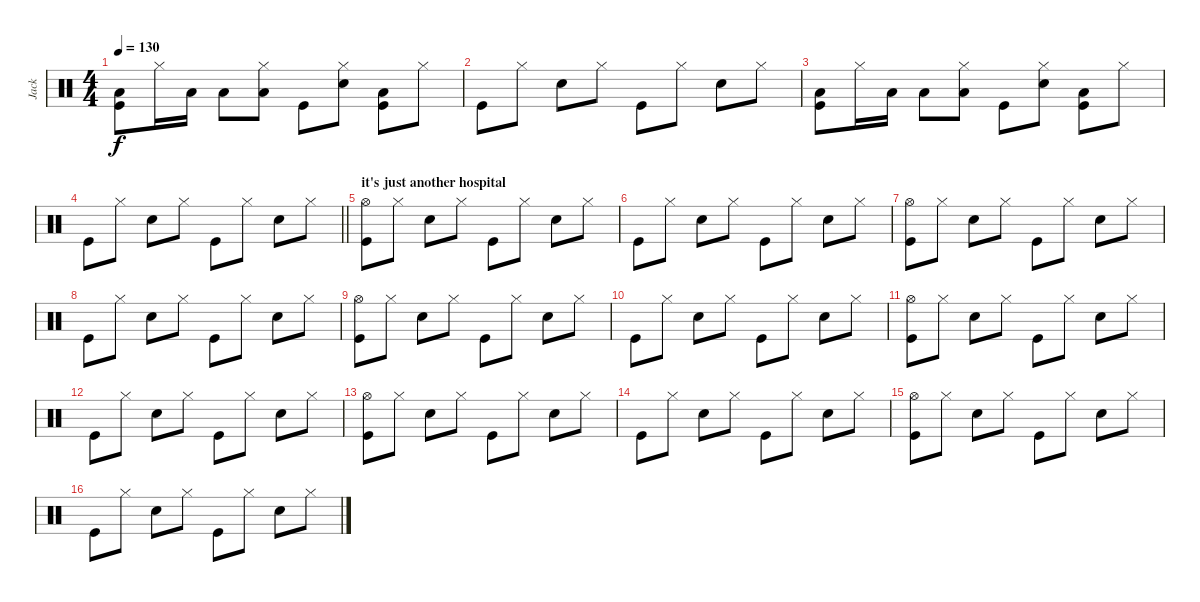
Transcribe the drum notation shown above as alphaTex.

\track ("Jack" "Jack") {instrument percussion}
\staff {score}
\articulation defaults
\ts (4 4)
\tempo 130
\clef neutral
\ks c
("Low Floor Tom (hit)" "Kick (hit)").8{dy f} "Hi-Hat (closed)".16 "Low Floor Tom (hit)".16 "Low Floor Tom (hit)".8 ("Hi-Hat (closed)" "Low Floor Tom (hit)").8 "Kick (hit)".8 ("Hi-Hat (closed)" "Electric Snare (hit)").8 ("Low Floor Tom (hit)" "Kick (hit)").8 "Hi-Hat (closed)".8 |
"Kick (hit)".8 "Hi-Hat (closed)".8 "Electric Snare (hit)".8 "Hi-Hat (closed)".8 "Kick (hit)".8 "Hi-Hat (closed)".8 "Electric Snare (hit)".8 "Hi-Hat (closed)".8 |
("Low Floor Tom (hit)" "Kick (hit)").8 "Hi-Hat (closed)".16 "Low Floor Tom (hit)".16 "Low Floor Tom (hit)".8 ("Hi-Hat (closed)" "Low Floor Tom (hit)").8 "Kick (hit)".8 ("Hi-Hat (closed)" "Electric Snare (hit)").8 ("Low Floor Tom (hit)" "Kick (hit)").8 "Hi-Hat (closed)".8 |
\barLineRight lightlight "Kick (hit)".8 "Hi-Hat (closed)".8 "Electric Snare (hit)".8 "Hi-Hat (closed)".8 "Kick (hit)".8 "Hi-Hat (closed)".8 "Electric Snare (hit)".8 "Hi-Hat (closed)".8
|
\section ("" "it's just another hospital")
("Hi-Hat (open)" "Kick (hit)").8 "Hi-Hat (closed)".8 "Electric Snare (hit)".8 "Hi-Hat (closed)".8 "Kick (hit)".8 "Hi-Hat (closed)".8 "Electric Snare (hit)".8 "Hi-Hat (closed)".8 |
"Kick (hit)".8 "Hi-Hat (closed)".8 "Electric Snare (hit)".8 "Hi-Hat (closed)".8 "Kick (hit)".8 "Hi-Hat (closed)".8 "Electric Snare (hit)".8 "Hi-Hat (closed)".8 |
("Hi-Hat (open)" "Kick (hit)").8 "Hi-Hat (closed)".8 "Electric Snare (hit)".8 "Hi-Hat (closed)".8 "Kick (hit)".8 "Hi-Hat (closed)".8 "Electric Snare (hit)".8 "Hi-Hat (closed)".8 |
"Kick (hit)".8 "Hi-Hat (closed)".8 "Electric Snare (hit)".8 "Hi-Hat (closed)".8 "Kick (hit)".8 "Hi-Hat (closed)".8 "Electric Snare (hit)".8 "Hi-Hat (closed)".8 |
("Hi-Hat (open)" "Kick (hit)").8 "Hi-Hat (closed)".8 "Electric Snare (hit)".8 "Hi-Hat (closed)".8 "Kick (hit)".8 "Hi-Hat (closed)".8 "Electric Snare (hit)".8 "Hi-Hat (closed)".8 |
"Kick (hit)".8 "Hi-Hat (closed)".8 "Electric Snare (hit)".8 "Hi-Hat (closed)".8 "Kick (hit)".8 "Hi-Hat (closed)".8 "Electric Snare (hit)".8 "Hi-Hat (closed)".8 |
("Hi-Hat (open)" "Kick (hit)").8 "Hi-Hat (closed)".8 "Electric Snare (hit)".8 "Hi-Hat (closed)".8 "Kick (hit)".8 "Hi-Hat (closed)".8 "Electric Snare (hit)".8 "Hi-Hat (closed)".8 |
"Kick (hit)".8 "Hi-Hat (closed)".8 "Electric Snare (hit)".8 "Hi-Hat (closed)".8 "Kick (hit)".8 "Hi-Hat (closed)".8 "Electric Snare (hit)".8 "Hi-Hat (closed)".8 |
("Hi-Hat (open)" "Kick (hit)").8 "Hi-Hat (closed)".8 "Electric Snare (hit)".8 "Hi-Hat (closed)".8 "Kick (hit)".8 "Hi-Hat (closed)".8 "Electric Snare (hit)".8 "Hi-Hat (closed)".8 |
"Kick (hit)".8 "Hi-Hat (closed)".8 "Electric Snare (hit)".8 "Hi-Hat (closed)".8 "Kick (hit)".8 "Hi-Hat (closed)".8 "Electric Snare (hit)".8 "Hi-Hat (closed)".8 |
("Hi-Hat (open)" "Kick (hit)").8 "Hi-Hat (closed)".8 "Electric Snare (hit)".8 "Hi-Hat (closed)".8 "Kick (hit)".8 "Hi-Hat (closed)".8 "Electric Snare (hit)".8 "Hi-Hat (closed)".8 |
"Kick (hit)".8 "Hi-Hat (closed)".8 "Electric Snare (hit)".8 "Hi-Hat (closed)".8 "Kick (hit)".8 "Hi-Hat (closed)".8 "Electric Snare (hit)".8 "Hi-Hat (closed)".8
